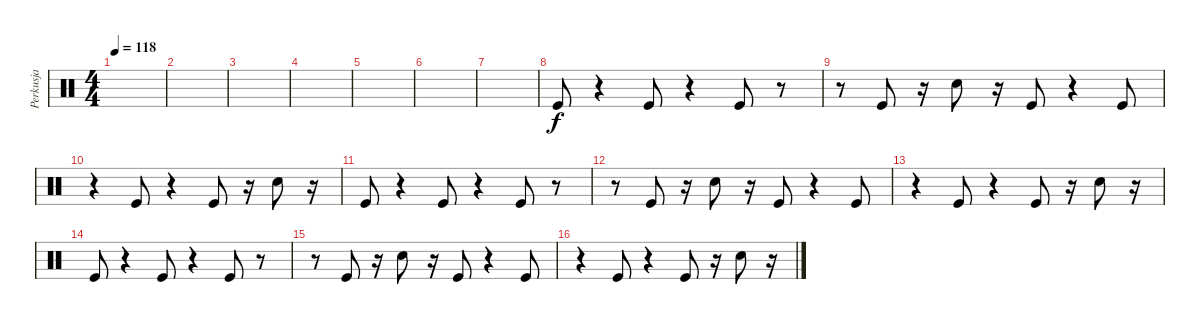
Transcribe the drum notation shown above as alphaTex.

\track ("Perkusja" "Perkusja") {instrument percussion}
\staff {score}
\articulation defaults
\ts (4 4)
\tempo 118
\clef neutral
\ks c
|
|
|
|
|
|
|
"Kick (hit)".8 r.4 "Kick (hit)".8 r.4 "Kick (hit)".8 r.8 |
r.8 "Kick (hit)".8 r.16 "Electric Snare (hit)".8 r.16 "Kick (hit)".8 r.4 "Kick (hit)".8 |
r.4 "Kick (hit)".8 r.4 "Kick (hit)".8 r.16 "Electric Snare (hit)".8 r.16 |
"Kick (hit)".8 r.4 "Kick (hit)".8 r.4 "Kick (hit)".8 r.8 |
r.8 "Kick (hit)".8 r.16 "Electric Snare (hit)".8 r.16 "Kick (hit)".8 r.4 "Kick (hit)".8 |
r.4 "Kick (hit)".8 r.4 "Kick (hit)".8 r.16 "Electric Snare (hit)".8 r.16 |
"Kick (hit)".8 r.4 "Kick (hit)".8 r.4 "Kick (hit)".8 r.8 |
r.8 "Kick (hit)".8 r.16 "Electric Snare (hit)".8 r.16 "Kick (hit)".8 r.4 "Kick (hit)".8 |
r.4 "Kick (hit)".8 r.4 "Kick (hit)".8 r.16 "Electric Snare (hit)".8 r.16
